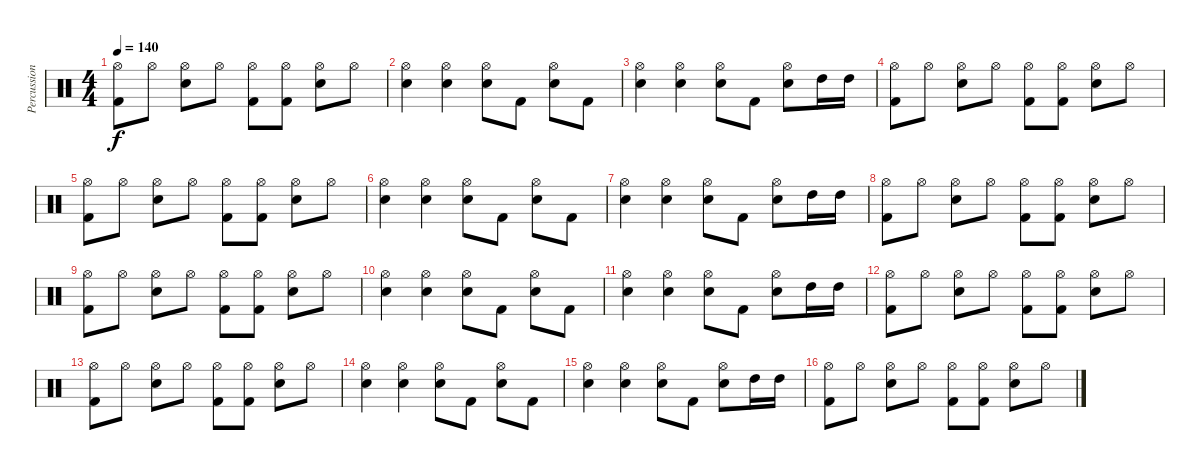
\track ("Percussion" "Percussion") {instrument percussion}
\staff {score}
\articulation defaults
\ts (4 4)
\tempo 140
\clef neutral
\ks c
("Kick (hit) 2" "Hi-Hat (open)").8{dy f} "Hi-Hat (open)".8 ("Snare (hit) 2" "Hi-Hat (open)").8 "Hi-Hat (open)".8 ("Kick (hit) 2" "Hi-Hat (open)").8 ("Kick (hit) 2" "Hi-Hat (open)").8 ("Snare (hit) 2" "Hi-Hat (open)").8 "Hi-Hat (open)".8 |
("Snare (hit) 2" "Hi-Hat (open)").4 ("Snare (hit) 2" "Hi-Hat (open)").4 ("Snare (hit) 2" "Hi-Hat (open)").8 "Kick (hit) 2".8 ("Snare (hit) 2" "Hi-Hat (open)").8 "Kick (hit) 2".8 |
("Snare (hit) 2" "Hi-Hat (open)").4 ("Snare (hit) 2" "Hi-Hat (open)").4 ("Snare (hit) 2" "Hi-Hat (open)").8 "Kick (hit) 2".8 ("Snare (hit) 2" "Hi-Hat (open)").8 "High Tom (hit)".16 "High Tom (hit)".16 |
("Kick (hit) 2" "Hi-Hat (open)").8 "Hi-Hat (open)".8 ("Snare (hit) 2" "Hi-Hat (open)").8 "Hi-Hat (open)".8 ("Kick (hit) 2" "Hi-Hat (open)").8 ("Kick (hit) 2" "Hi-Hat (open)").8 ("Snare (hit) 2" "Hi-Hat (open)").8 "Hi-Hat (open)".8 |
("Kick (hit) 2" "Hi-Hat (open)").8 "Hi-Hat (open)".8 ("Snare (hit) 2" "Hi-Hat (open)").8 "Hi-Hat (open)".8 ("Kick (hit) 2" "Hi-Hat (open)").8 ("Kick (hit) 2" "Hi-Hat (open)").8 ("Snare (hit) 2" "Hi-Hat (open)").8 "Hi-Hat (open)".8 |
("Snare (hit) 2" "Hi-Hat (open)").4 ("Snare (hit) 2" "Hi-Hat (open)").4 ("Snare (hit) 2" "Hi-Hat (open)").8 "Kick (hit) 2".8 ("Snare (hit) 2" "Hi-Hat (open)").8 "Kick (hit) 2".8 |
("Snare (hit) 2" "Hi-Hat (open)").4 ("Snare (hit) 2" "Hi-Hat (open)").4 ("Snare (hit) 2" "Hi-Hat (open)").8 "Kick (hit) 2".8 ("Snare (hit) 2" "Hi-Hat (open)").8 "High Tom (hit)".16 "High Tom (hit)".16 |
("Kick (hit) 2" "Hi-Hat (open)").8 "Hi-Hat (open)".8 ("Snare (hit) 2" "Hi-Hat (open)").8 "Hi-Hat (open)".8 ("Kick (hit) 2" "Hi-Hat (open)").8 ("Kick (hit) 2" "Hi-Hat (open)").8 ("Snare (hit) 2" "Hi-Hat (open)").8 "Hi-Hat (open)".8 |
("Kick (hit) 2" "Hi-Hat (open)").8 "Hi-Hat (open)".8 ("Snare (hit) 2" "Hi-Hat (open)").8 "Hi-Hat (open)".8 ("Kick (hit) 2" "Hi-Hat (open)").8 ("Kick (hit) 2" "Hi-Hat (open)").8 ("Snare (hit) 2" "Hi-Hat (open)").8 "Hi-Hat (open)".8 |
("Snare (hit) 2" "Hi-Hat (open)").4 ("Snare (hit) 2" "Hi-Hat (open)").4 ("Snare (hit) 2" "Hi-Hat (open)").8 "Kick (hit) 2".8 ("Snare (hit) 2" "Hi-Hat (open)").8 "Kick (hit) 2".8 |
("Snare (hit) 2" "Hi-Hat (open)").4 ("Snare (hit) 2" "Hi-Hat (open)").4 ("Snare (hit) 2" "Hi-Hat (open)").8 "Kick (hit) 2".8 ("Snare (hit) 2" "Hi-Hat (open)").8 "High Tom (hit)".16 "High Tom (hit)".16 |
("Kick (hit) 2" "Hi-Hat (open)").8 "Hi-Hat (open)".8 ("Snare (hit) 2" "Hi-Hat (open)").8 "Hi-Hat (open)".8 ("Kick (hit) 2" "Hi-Hat (open)").8 ("Kick (hit) 2" "Hi-Hat (open)").8 ("Snare (hit) 2" "Hi-Hat (open)").8 "Hi-Hat (open)".8 |
("Kick (hit) 2" "Hi-Hat (open)").8 "Hi-Hat (open)".8 ("Snare (hit) 2" "Hi-Hat (open)").8 "Hi-Hat (open)".8 ("Kick (hit) 2" "Hi-Hat (open)").8 ("Kick (hit) 2" "Hi-Hat (open)").8 ("Snare (hit) 2" "Hi-Hat (open)").8 "Hi-Hat (open)".8 |
("Snare (hit) 2" "Hi-Hat (open)").4 ("Snare (hit) 2" "Hi-Hat (open)").4 ("Snare (hit) 2" "Hi-Hat (open)").8 "Kick (hit) 2".8 ("Snare (hit) 2" "Hi-Hat (open)").8 "Kick (hit) 2".8 |
("Snare (hit) 2" "Hi-Hat (open)").4 ("Snare (hit) 2" "Hi-Hat (open)").4 ("Snare (hit) 2" "Hi-Hat (open)").8 "Kick (hit) 2".8 ("Snare (hit) 2" "Hi-Hat (open)").8 "High Tom (hit)".16 "High Tom (hit)".16 |
("Kick (hit) 2" "Hi-Hat (open)").8 "Hi-Hat (open)".8 ("Snare (hit) 2" "Hi-Hat (open)").8 "Hi-Hat (open)".8 ("Kick (hit) 2" "Hi-Hat (open)").8 ("Kick (hit) 2" "Hi-Hat (open)").8 ("Snare (hit) 2" "Hi-Hat (open)").8 "Hi-Hat (open)".8
